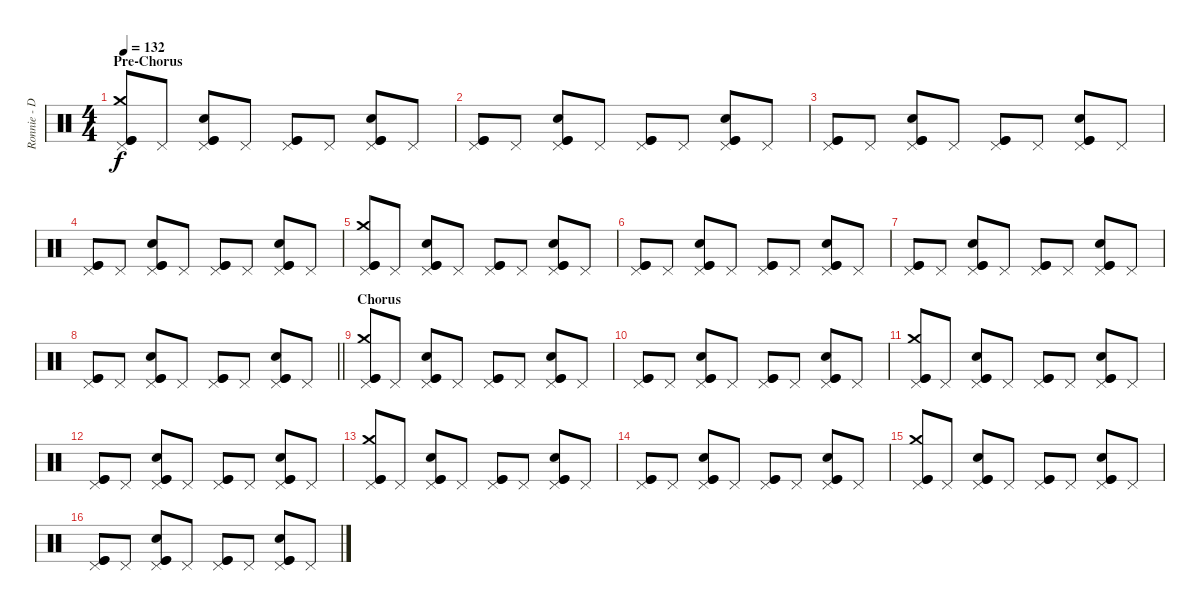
\track ("Ronnie - Drums" "Ronnie - D") {instrument percussion}
\staff {score}
\articulation defaults
\ts (4 4)
\section ("" "Pre-Chorus")
\tempo 132
\clef neutral
\ks c
("Pedal Hi-Hat (hit)" "Crash medium (hit)" "Kick (hit)" "Kick (hit)").8{dy f} "Pedal Hi-Hat (hit)".8 ("Pedal Hi-Hat (hit)" "Electric Snare (hit)" "Kick (hit)" "Kick (hit)").8 "Pedal Hi-Hat (hit)".8 ("Pedal Hi-Hat (hit)" "Kick (hit)" "Kick (hit)").8 "Pedal Hi-Hat (hit)".8 ("Pedal Hi-Hat (hit)" "Electric Snare (hit)" "Kick (hit)" "Kick (hit)").8 "Pedal Hi-Hat (hit)".8 |
("Pedal Hi-Hat (hit)" "Kick (hit)" "Kick (hit)").8 "Pedal Hi-Hat (hit)".8 ("Pedal Hi-Hat (hit)" "Electric Snare (hit)" "Kick (hit)" "Kick (hit)").8 "Pedal Hi-Hat (hit)".8 ("Pedal Hi-Hat (hit)" "Kick (hit)" "Kick (hit)").8 "Pedal Hi-Hat (hit)".8 ("Pedal Hi-Hat (hit)" "Electric Snare (hit)" "Kick (hit)" "Kick (hit)").8 "Pedal Hi-Hat (hit)".8 |
("Pedal Hi-Hat (hit)" "Kick (hit)" "Kick (hit)").8 "Pedal Hi-Hat (hit)".8 ("Pedal Hi-Hat (hit)" "Electric Snare (hit)" "Kick (hit)" "Kick (hit)").8 "Pedal Hi-Hat (hit)".8 ("Pedal Hi-Hat (hit)" "Kick (hit)" "Kick (hit)").8 "Pedal Hi-Hat (hit)".8 ("Pedal Hi-Hat (hit)" "Electric Snare (hit)" "Kick (hit)" "Kick (hit)").8 "Pedal Hi-Hat (hit)".8 |
("Pedal Hi-Hat (hit)" "Kick (hit)" "Kick (hit)").8 "Pedal Hi-Hat (hit)".8 ("Pedal Hi-Hat (hit)" "Electric Snare (hit)" "Kick (hit)" "Kick (hit)").8 "Pedal Hi-Hat (hit)".8 ("Pedal Hi-Hat (hit)" "Kick (hit)" "Kick (hit)").8 "Pedal Hi-Hat (hit)".8 ("Pedal Hi-Hat (hit)" "Electric Snare (hit)" "Kick (hit)" "Kick (hit)").8 "Pedal Hi-Hat (hit)".8 |
("Pedal Hi-Hat (hit)" "Crash medium (hit)" "Kick (hit)" "Kick (hit)").8 "Pedal Hi-Hat (hit)".8 ("Pedal Hi-Hat (hit)" "Electric Snare (hit)" "Kick (hit)" "Kick (hit)").8 "Pedal Hi-Hat (hit)".8 ("Pedal Hi-Hat (hit)" "Kick (hit)" "Kick (hit)").8 "Pedal Hi-Hat (hit)".8 ("Pedal Hi-Hat (hit)" "Electric Snare (hit)" "Kick (hit)" "Kick (hit)").8 "Pedal Hi-Hat (hit)".8 |
("Pedal Hi-Hat (hit)" "Kick (hit)" "Kick (hit)").8 "Pedal Hi-Hat (hit)".8 ("Pedal Hi-Hat (hit)" "Electric Snare (hit)" "Kick (hit)" "Kick (hit)").8 "Pedal Hi-Hat (hit)".8 ("Pedal Hi-Hat (hit)" "Kick (hit)" "Kick (hit)").8 "Pedal Hi-Hat (hit)".8 ("Pedal Hi-Hat (hit)" "Electric Snare (hit)" "Kick (hit)" "Kick (hit)").8 "Pedal Hi-Hat (hit)".8 |
("Pedal Hi-Hat (hit)" "Kick (hit)" "Kick (hit)").8 "Pedal Hi-Hat (hit)".8 ("Pedal Hi-Hat (hit)" "Electric Snare (hit)" "Kick (hit)" "Kick (hit)").8 "Pedal Hi-Hat (hit)".8 ("Pedal Hi-Hat (hit)" "Kick (hit)" "Kick (hit)").8 "Pedal Hi-Hat (hit)".8 ("Pedal Hi-Hat (hit)" "Electric Snare (hit)" "Kick (hit)" "Kick (hit)").8 "Pedal Hi-Hat (hit)".8 |
\barLineRight lightlight
("Pedal Hi-Hat (hit)" "Kick (hit)" "Kick (hit)").8 "Pedal Hi-Hat (hit)".8 ("Pedal Hi-Hat (hit)" "Electric Snare (hit)" "Kick (hit)" "Kick (hit)").8 "Pedal Hi-Hat (hit)".8 ("Pedal Hi-Hat (hit)" "Kick (hit)" "Kick (hit)").8 "Pedal Hi-Hat (hit)".8 ("Pedal Hi-Hat (hit)" "Electric Snare (hit)" "Kick (hit)" "Kick (hit)").8 "Pedal Hi-Hat (hit)".8 |
\section ("" "Chorus")
("Pedal Hi-Hat (hit)" "Crash medium (hit)" "Kick (hit)" "Kick (hit)").8 "Pedal Hi-Hat (hit)".8 ("Pedal Hi-Hat (hit)" "Electric Snare (hit)" "Kick (hit)" "Kick (hit)").8 "Pedal Hi-Hat (hit)".8 ("Pedal Hi-Hat (hit)" "Kick (hit)" "Kick (hit)").8 "Pedal Hi-Hat (hit)".8 ("Pedal Hi-Hat (hit)" "Electric Snare (hit)" "Kick (hit)" "Kick (hit)").8 "Pedal Hi-Hat (hit)".8 |
("Pedal Hi-Hat (hit)" "Kick (hit)" "Kick (hit)").8 "Pedal Hi-Hat (hit)".8 ("Pedal Hi-Hat (hit)" "Electric Snare (hit)" "Kick (hit)" "Kick (hit)").8 "Pedal Hi-Hat (hit)".8 ("Pedal Hi-Hat (hit)" "Kick (hit)" "Kick (hit)").8 "Pedal Hi-Hat (hit)".8 ("Pedal Hi-Hat (hit)" "Electric Snare (hit)" "Kick (hit)" "Kick (hit)").8 "Pedal Hi-Hat (hit)".8 |
("Pedal Hi-Hat (hit)" "Crash medium (hit)" "Kick (hit)" "Kick (hit)").8 "Pedal Hi-Hat (hit)".8 ("Pedal Hi-Hat (hit)" "Electric Snare (hit)" "Kick (hit)" "Kick (hit)").8 "Pedal Hi-Hat (hit)".8 ("Pedal Hi-Hat (hit)" "Kick (hit)" "Kick (hit)").8 "Pedal Hi-Hat (hit)".8 ("Pedal Hi-Hat (hit)" "Electric Snare (hit)" "Kick (hit)" "Kick (hit)").8 "Pedal Hi-Hat (hit)".8 |
("Pedal Hi-Hat (hit)" "Kick (hit)" "Kick (hit)").8 "Pedal Hi-Hat (hit)".8 ("Pedal Hi-Hat (hit)" "Electric Snare (hit)" "Kick (hit)" "Kick (hit)").8 "Pedal Hi-Hat (hit)".8 ("Pedal Hi-Hat (hit)" "Kick (hit)" "Kick (hit)").8 "Pedal Hi-Hat (hit)".8 ("Pedal Hi-Hat (hit)" "Electric Snare (hit)" "Kick (hit)" "Kick (hit)").8 "Pedal Hi-Hat (hit)".8 |
("Pedal Hi-Hat (hit)" "Crash medium (hit)" "Kick (hit)" "Kick (hit)").8 "Pedal Hi-Hat (hit)".8 ("Pedal Hi-Hat (hit)" "Electric Snare (hit)" "Kick (hit)" "Kick (hit)").8 "Pedal Hi-Hat (hit)".8 ("Pedal Hi-Hat (hit)" "Kick (hit)" "Kick (hit)").8 "Pedal Hi-Hat (hit)".8 ("Pedal Hi-Hat (hit)" "Electric Snare (hit)" "Kick (hit)" "Kick (hit)").8 "Pedal Hi-Hat (hit)".8 |
("Pedal Hi-Hat (hit)" "Kick (hit)" "Kick (hit)").8 "Pedal Hi-Hat (hit)".8 ("Pedal Hi-Hat (hit)" "Electric Snare (hit)" "Kick (hit)" "Kick (hit)").8 "Pedal Hi-Hat (hit)".8 ("Pedal Hi-Hat (hit)" "Kick (hit)" "Kick (hit)").8 "Pedal Hi-Hat (hit)".8 ("Pedal Hi-Hat (hit)" "Electric Snare (hit)" "Kick (hit)" "Kick (hit)").8 "Pedal Hi-Hat (hit)".8 |
("Pedal Hi-Hat (hit)" "Crash medium (hit)" "Kick (hit)" "Kick (hit)").8 "Pedal Hi-Hat (hit)".8 ("Pedal Hi-Hat (hit)" "Electric Snare (hit)" "Kick (hit)" "Kick (hit)").8 "Pedal Hi-Hat (hit)".8 ("Pedal Hi-Hat (hit)" "Kick (hit)" "Kick (hit)").8 "Pedal Hi-Hat (hit)".8 ("Pedal Hi-Hat (hit)" "Electric Snare (hit)" "Kick (hit)" "Kick (hit)").8 "Pedal Hi-Hat (hit)".8 |
("Pedal Hi-Hat (hit)" "Kick (hit)" "Kick (hit)").8 "Pedal Hi-Hat (hit)".8 ("Pedal Hi-Hat (hit)" "Electric Snare (hit)" "Kick (hit)" "Kick (hit)").8 "Pedal Hi-Hat (hit)".8 ("Pedal Hi-Hat (hit)" "Kick (hit)" "Kick (hit)").8 "Pedal Hi-Hat (hit)".8 ("Pedal Hi-Hat (hit)" "Electric Snare (hit)" "Kick (hit)" "Kick (hit)").8 "Pedal Hi-Hat (hit)".8
